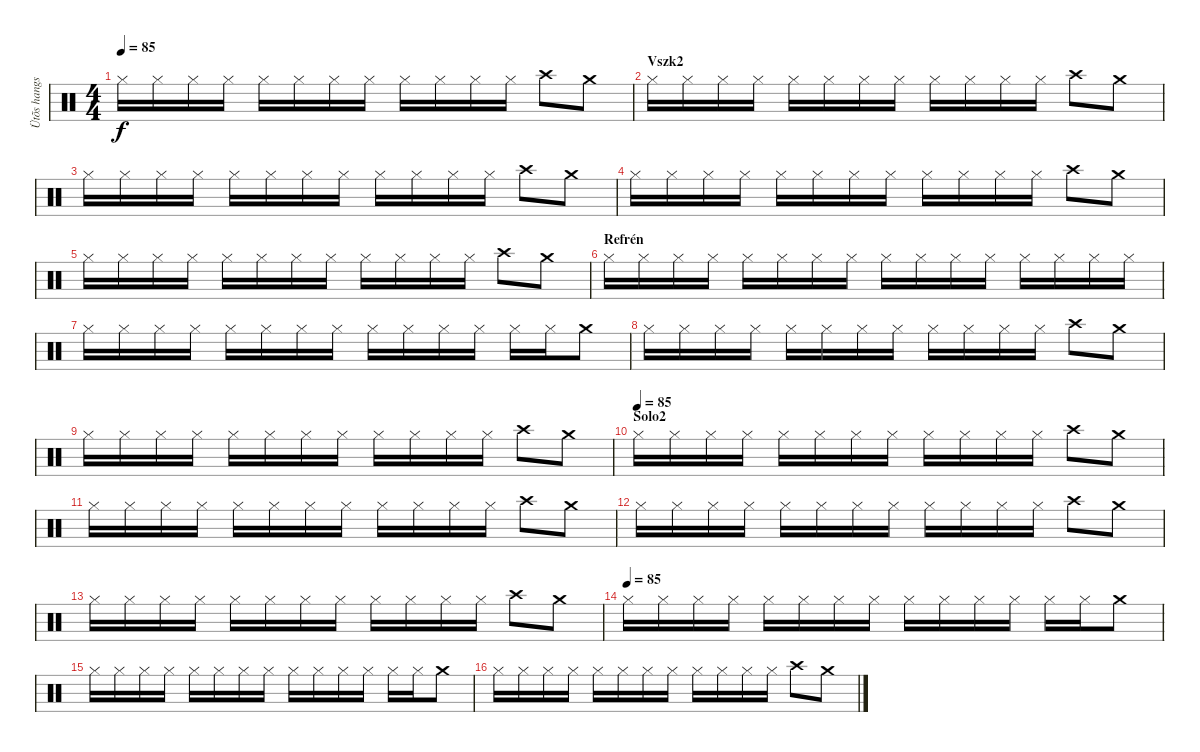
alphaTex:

\track ("Ütõs hangszer" "Ütõs hangs") {instrument percussion}
\staff {score}
\articulation defaults
\ts (4 4)
\tempo 85
\clef neutral
\ks c "Hi-Hat (closed)".16{dy f} "Hi-Hat (closed)".16 "Hi-Hat (closed)".16 "Hi-Hat (closed)".16 "Hi-Hat (closed)".16 "Hi-Hat (closed)".16 "Hi-Hat (closed)".16 "Hi-Hat (closed)".16 "Hi-Hat (closed)".16 "Hi-Hat (closed)".16 "Hi-Hat (closed)".16 "Hi-Hat (closed)".16 "Crash high (hit)".8 "Crash medium (hit)".8
|
\section ("" "Vszk2")
"Hi-Hat (closed)".16 "Hi-Hat (closed)".16 "Hi-Hat (closed)".16 "Hi-Hat (closed)".16 "Hi-Hat (closed)".16 "Hi-Hat (closed)".16 "Hi-Hat (closed)".16 "Hi-Hat (closed)".16 "Hi-Hat (closed)".16 "Hi-Hat (closed)".16 "Hi-Hat (closed)".16 "Hi-Hat (closed)".16 "Crash high (hit)".8 "Crash medium (hit)".8 |
"Hi-Hat (closed)".16 "Hi-Hat (closed)".16 "Hi-Hat (closed)".16 "Hi-Hat (closed)".16 "Hi-Hat (closed)".16 "Hi-Hat (closed)".16 "Hi-Hat (closed)".16 "Hi-Hat (closed)".16 "Hi-Hat (closed)".16 "Hi-Hat (closed)".16 "Hi-Hat (closed)".16 "Hi-Hat (closed)".16 "Crash high (hit)".8 "Crash medium (hit)".8 |
"Hi-Hat (closed)".16 "Hi-Hat (closed)".16 "Hi-Hat (closed)".16 "Hi-Hat (closed)".16 "Hi-Hat (closed)".16 "Hi-Hat (closed)".16 "Hi-Hat (closed)".16 "Hi-Hat (closed)".16 "Hi-Hat (closed)".16 "Hi-Hat (closed)".16 "Hi-Hat (closed)".16 "Hi-Hat (closed)".16 "Crash high (hit)".8 "Crash medium (hit)".8 |
"Hi-Hat (closed)".16 "Hi-Hat (closed)".16 "Hi-Hat (closed)".16 "Hi-Hat (closed)".16 "Hi-Hat (closed)".16 "Hi-Hat (closed)".16 "Hi-Hat (closed)".16 "Hi-Hat (closed)".16 "Hi-Hat (closed)".16 "Hi-Hat (closed)".16 "Hi-Hat (closed)".16 "Hi-Hat (closed)".16 "Crash high (hit)".8 "Crash medium (hit)".8 |
\section ("" "Refrén")
"Hi-Hat (closed)".16 "Hi-Hat (closed)".16 "Hi-Hat (closed)".16 "Hi-Hat (closed)".16 "Hi-Hat (closed)".16 "Hi-Hat (closed)".16 "Hi-Hat (closed)".16 "Hi-Hat (closed)".16 "Hi-Hat (closed)".16 "Hi-Hat (closed)".16 "Hi-Hat (closed)".16 "Hi-Hat (closed)".16 "Hi-Hat (closed)".16 "Hi-Hat (closed)".16 "Hi-Hat (closed)".16 "Hi-Hat (closed)".16 |
"Hi-Hat (closed)".16 "Hi-Hat (closed)".16 "Hi-Hat (closed)".16 "Hi-Hat (closed)".16 "Hi-Hat (closed)".16 "Hi-Hat (closed)".16 "Hi-Hat (closed)".16 "Hi-Hat (closed)".16 "Hi-Hat (closed)".16 "Hi-Hat (closed)".16 "Hi-Hat (closed)".16 "Hi-Hat (closed)".16 "Hi-Hat (closed)".16 "Hi-Hat (closed)".16 "Crash medium (hit)".8 |
"Hi-Hat (closed)".16 "Hi-Hat (closed)".16 "Hi-Hat (closed)".16 "Hi-Hat (closed)".16 "Hi-Hat (closed)".16 "Hi-Hat (closed)".16 "Hi-Hat (closed)".16 "Hi-Hat (closed)".16 "Hi-Hat (closed)".16 "Hi-Hat (closed)".16 "Hi-Hat (closed)".16 "Hi-Hat (closed)".16 "Crash high (hit)".8 "Crash medium (hit)".8 |
"Hi-Hat (closed)".16 "Hi-Hat (closed)".16 "Hi-Hat (closed)".16 "Hi-Hat (closed)".16 "Hi-Hat (closed)".16 "Hi-Hat (closed)".16 "Hi-Hat (closed)".16 "Hi-Hat (closed)".16 "Hi-Hat (closed)".16 "Hi-Hat (closed)".16 "Hi-Hat (closed)".16 "Hi-Hat (closed)".16 "Crash high (hit)".8 "Crash medium (hit)".8 |
\section ("" "Solo2")
\tempo (85)
"Hi-Hat (closed)".16 "Hi-Hat (closed)".16 "Hi-Hat (closed)".16 "Hi-Hat (closed)".16 "Hi-Hat (closed)".16 "Hi-Hat (closed)".16 "Hi-Hat (closed)".16 "Hi-Hat (closed)".16 "Hi-Hat (closed)".16 "Hi-Hat (closed)".16 "Hi-Hat (closed)".16 "Hi-Hat (closed)".16 "Crash high (hit)".8 "Crash medium (hit)".8 |
"Hi-Hat (closed)".16 "Hi-Hat (closed)".16 "Hi-Hat (closed)".16 "Hi-Hat (closed)".16 "Hi-Hat (closed)".16 "Hi-Hat (closed)".16 "Hi-Hat (closed)".16 "Hi-Hat (closed)".16 "Hi-Hat (closed)".16 "Hi-Hat (closed)".16 "Hi-Hat (closed)".16 "Hi-Hat (closed)".16 "Crash high (hit)".8 "Crash medium (hit)".8 |
"Hi-Hat (closed)".16 "Hi-Hat (closed)".16 "Hi-Hat (closed)".16 "Hi-Hat (closed)".16 "Hi-Hat (closed)".16 "Hi-Hat (closed)".16 "Hi-Hat (closed)".16 "Hi-Hat (closed)".16 "Hi-Hat (closed)".16 "Hi-Hat (closed)".16 "Hi-Hat (closed)".16 "Hi-Hat (closed)".16 "Crash high (hit)".8 "Crash medium (hit)".8 |
"Hi-Hat (closed)".16 "Hi-Hat (closed)".16 "Hi-Hat (closed)".16 "Hi-Hat (closed)".16 "Hi-Hat (closed)".16 "Hi-Hat (closed)".16 "Hi-Hat (closed)".16 "Hi-Hat (closed)".16 "Hi-Hat (closed)".16 "Hi-Hat (closed)".16 "Hi-Hat (closed)".16 "Hi-Hat (closed)".16 "Crash high (hit)".8 "Crash medium (hit)".8 |
\tempo (85)
"Hi-Hat (closed)".16 "Hi-Hat (closed)".16 "Hi-Hat (closed)".16 "Hi-Hat (closed)".16 "Hi-Hat (closed)".16 "Hi-Hat (closed)".16 "Hi-Hat (closed)".16 "Hi-Hat (closed)".16 "Hi-Hat (closed)".16 "Hi-Hat (closed)".16 "Hi-Hat (closed)".16 "Hi-Hat (closed)".16 "Hi-Hat (closed)".16 "Hi-Hat (closed)".16 "Crash medium (hit)".8 |
"Hi-Hat (closed)".16 "Hi-Hat (closed)".16 "Hi-Hat (closed)".16 "Hi-Hat (closed)".16 "Hi-Hat (closed)".16 "Hi-Hat (closed)".16 "Hi-Hat (closed)".16 "Hi-Hat (closed)".16 "Hi-Hat (closed)".16 "Hi-Hat (closed)".16 "Hi-Hat (closed)".16 "Hi-Hat (closed)".16 "Hi-Hat (closed)".16 "Hi-Hat (closed)".16 "Crash medium (hit)".8 |
"Hi-Hat (closed)".16 "Hi-Hat (closed)".16 "Hi-Hat (closed)".16 "Hi-Hat (closed)".16 "Hi-Hat (closed)".16 "Hi-Hat (closed)".16 "Hi-Hat (closed)".16 "Hi-Hat (closed)".16 "Hi-Hat (closed)".16 "Hi-Hat (closed)".16 "Hi-Hat (closed)".16 "Hi-Hat (closed)".16 "Crash high (hit)".8 "Crash medium (hit)".8
